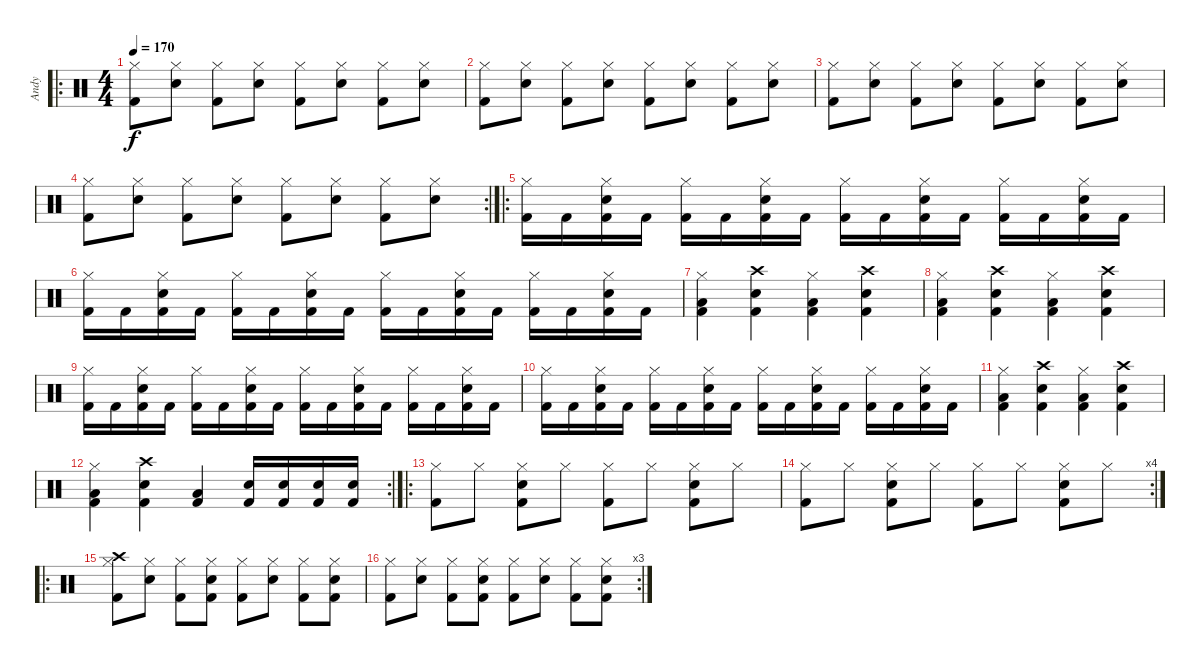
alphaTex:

\track ("Andy" "Andy") {instrument percussion}
\staff {score}
\articulation defaults
\ro
\ts (4 4)
\tempo 170
\clef neutral
\ks c
("Hi-Hat (closed)" "Kick (hit) 2").8{dy f} ("Hi-Hat (closed)" "Electric Snare (hit)").8 ("Hi-Hat (closed)" "Kick (hit) 2").8 ("Hi-Hat (closed)" "Electric Snare (hit)").8 ("Hi-Hat (closed)" "Kick (hit) 2").8 ("Hi-Hat (closed)" "Electric Snare (hit)").8 ("Hi-Hat (closed)" "Kick (hit) 2").8 ("Hi-Hat (closed)" "Electric Snare (hit)").8 |
("Hi-Hat (closed)" "Kick (hit) 2").8 ("Hi-Hat (closed)" "Electric Snare (hit)").8 ("Hi-Hat (closed)" "Kick (hit) 2").8 ("Hi-Hat (closed)" "Electric Snare (hit)").8 ("Hi-Hat (closed)" "Kick (hit) 2").8 ("Hi-Hat (closed)" "Electric Snare (hit)").8 ("Hi-Hat (closed)" "Kick (hit) 2").8 ("Hi-Hat (closed)" "Electric Snare (hit)").8 |
("Hi-Hat (closed)" "Kick (hit) 2").8 ("Hi-Hat (closed)" "Electric Snare (hit)").8 ("Hi-Hat (closed)" "Kick (hit) 2").8 ("Hi-Hat (closed)" "Electric Snare (hit)").8 ("Hi-Hat (closed)" "Kick (hit) 2").8 ("Hi-Hat (closed)" "Electric Snare (hit)").8 ("Hi-Hat (closed)" "Kick (hit) 2").8 ("Hi-Hat (closed)" "Electric Snare (hit)").8 |
\rc 2
("Hi-Hat (closed)" "Kick (hit) 2").8 ("Hi-Hat (closed)" "Electric Snare (hit)").8 ("Hi-Hat (closed)" "Kick (hit) 2").8 ("Hi-Hat (closed)" "Electric Snare (hit)").8 ("Hi-Hat (closed)" "Kick (hit) 2").8 ("Hi-Hat (closed)" "Electric Snare (hit)").8 ("Hi-Hat (closed)" "Kick (hit) 2").8 ("Hi-Hat (closed)" "Electric Snare (hit)").8 |
\ro
("Kick (hit) 2" "Hi-Hat (closed)").16 "Kick (hit) 2".16 ("Kick (hit) 2" "Hi-Hat (closed)" "Electric Snare (hit)").16 "Kick (hit) 2".16 ("Kick (hit) 2" "Hi-Hat (closed)").16 "Kick (hit) 2".16 ("Kick (hit) 2" "Hi-Hat (closed)" "Electric Snare (hit)").16 "Kick (hit) 2".16 ("Kick (hit) 2" "Hi-Hat (closed)").16 "Kick (hit) 2".16 ("Kick (hit) 2" "Hi-Hat (closed)" "Electric Snare (hit)").16 "Kick (hit) 2".16 ("Kick (hit) 2" "Hi-Hat (closed)").16 "Kick (hit) 2".16 ("Kick (hit) 2" "Hi-Hat (closed)" "Electric Snare (hit)").16 "Kick (hit) 2".16 |
("Kick (hit) 2" "Hi-Hat (closed)").16 "Kick (hit) 2".16 ("Kick (hit) 2" "Hi-Hat (closed)" "Electric Snare (hit)").16 "Kick (hit) 2".16 ("Kick (hit) 2" "Hi-Hat (closed)").16 "Kick (hit) 2".16 ("Kick (hit) 2" "Hi-Hat (closed)" "Electric Snare (hit)").16 "Kick (hit) 2".16 ("Kick (hit) 2" "Hi-Hat (closed)").16 "Kick (hit) 2".16 ("Kick (hit) 2" "Hi-Hat (closed)" "Electric Snare (hit)").16 "Kick (hit) 2".16 ("Kick (hit) 2" "Hi-Hat (closed)").16 "Kick (hit) 2".16 ("Kick (hit) 2" "Hi-Hat (closed)" "Electric Snare (hit)").16 "Kick (hit) 2".16 |
("Kick (hit) 2" "Low Tom (hit)" "Hi-Hat (closed)").4 ("Kick (hit) 2" "Electric Snare (hit)" "Crash high (hit)").4 ("Kick (hit) 2" "Low Tom (hit)" "Hi-Hat (closed)").4 ("Kick (hit) 2" "Electric Snare (hit)" "Crash high (hit)").4 |
("Kick (hit) 2" "Low Tom (hit)" "Hi-Hat (closed)").4 ("Kick (hit) 2" "Electric Snare (hit)" "Crash high (hit)").4 ("Kick (hit) 2" "Low Tom (hit)" "Hi-Hat (closed)").4 ("Kick (hit) 2" "Electric Snare (hit)" "Crash high (hit)").4 |
("Kick (hit) 2" "Hi-Hat (closed)").16 "Kick (hit) 2".16 ("Kick (hit) 2" "Hi-Hat (closed)" "Electric Snare (hit)").16 "Kick (hit) 2".16 ("Kick (hit) 2" "Hi-Hat (closed)").16 "Kick (hit) 2".16 ("Kick (hit) 2" "Hi-Hat (closed)" "Electric Snare (hit)").16 "Kick (hit) 2".16 ("Kick (hit) 2" "Hi-Hat (closed)").16 "Kick (hit) 2".16 ("Kick (hit) 2" "Hi-Hat (closed)" "Electric Snare (hit)").16 "Kick (hit) 2".16 ("Kick (hit) 2" "Hi-Hat (closed)").16 "Kick (hit) 2".16 ("Kick (hit) 2" "Hi-Hat (closed)" "Electric Snare (hit)").16 "Kick (hit) 2".16 |
("Kick (hit) 2" "Hi-Hat (closed)").16 "Kick (hit) 2".16 ("Kick (hit) 2" "Hi-Hat (closed)" "Electric Snare (hit)").16 "Kick (hit) 2".16 ("Kick (hit) 2" "Hi-Hat (closed)").16 "Kick (hit) 2".16 ("Kick (hit) 2" "Hi-Hat (closed)" "Electric Snare (hit)").16 "Kick (hit) 2".16 ("Kick (hit) 2" "Hi-Hat (closed)").16 "Kick (hit) 2".16 ("Kick (hit) 2" "Hi-Hat (closed)" "Electric Snare (hit)").16 "Kick (hit) 2".16 ("Kick (hit) 2" "Hi-Hat (closed)").16 "Kick (hit) 2".16 ("Kick (hit) 2" "Hi-Hat (closed)" "Electric Snare (hit)").16 "Kick (hit) 2".16 |
("Kick (hit) 2" "Low Tom (hit)" "Hi-Hat (closed)").4 ("Kick (hit) 2" "Electric Snare (hit)" "Crash high (hit)").4 ("Kick (hit) 2" "Low Tom (hit)" "Hi-Hat (closed)").4 ("Kick (hit) 2" "Electric Snare (hit)" "Crash high (hit)").4 |
\rc 2
("Kick (hit) 2" "Low Tom (hit)" "Hi-Hat (closed)").4 ("Kick (hit) 2" "Electric Snare (hit)" "Crash high (hit)").4 ("Kick (hit) 2" "Low Tom (hit)").4 ("Kick (hit) 2" "Electric Snare (hit)").16 ("Kick (hit) 2" "Electric Snare (hit)").16 ("Kick (hit) 2" "Electric Snare (hit)").16 ("Kick (hit) 2" "Electric Snare (hit)").16 |
\ro
("Hi-Hat (closed)" "Kick (hit) 2").8 "Hi-Hat (closed)".8 ("Hi-Hat (closed)" "Electric Snare (hit)" "Kick (hit) 2").8 "Hi-Hat (closed)".8 ("Hi-Hat (closed)" "Kick (hit) 2").8 "Hi-Hat (closed)".8 ("Hi-Hat (closed)" "Electric Snare (hit)" "Kick (hit) 2").8 "Hi-Hat (closed)".8 |
\rc 4
("Hi-Hat (closed)" "Kick (hit) 2").8 "Hi-Hat (closed)".8 ("Hi-Hat (closed)" "Electric Snare (hit)" "Kick (hit) 2").8 "Hi-Hat (closed)".8 ("Hi-Hat (closed)" "Kick (hit) 2").8 "Hi-Hat (closed)".8 ("Hi-Hat (closed)" "Electric Snare (hit)" "Kick (hit) 2").8 "Hi-Hat (closed)".8 |
\ro
("Hi-Hat (closed)" "Kick (hit) 2" "Crash high (hit)").8 ("Hi-Hat (closed)" "Electric Snare (hit)").8 ("Hi-Hat (closed)" "Kick (hit) 2").8 ("Hi-Hat (closed)" "Electric Snare (hit)" "Kick (hit) 2").8 ("Hi-Hat (closed)" "Kick (hit) 2").8 ("Hi-Hat (closed)" "Electric Snare (hit)").8 ("Hi-Hat (closed)" "Kick (hit) 2").8 ("Hi-Hat (closed)" "Electric Snare (hit)" "Kick (hit) 2").8 |
\rc 3
("Hi-Hat (closed)" "Kick (hit) 2").8 ("Hi-Hat (closed)" "Electric Snare (hit)").8 ("Hi-Hat (closed)" "Kick (hit) 2").8 ("Hi-Hat (closed)" "Electric Snare (hit)" "Kick (hit) 2").8 ("Hi-Hat (closed)" "Kick (hit) 2").8 ("Hi-Hat (closed)" "Electric Snare (hit)").8 ("Hi-Hat (closed)" "Kick (hit) 2").8 ("Hi-Hat (closed)" "Electric Snare (hit)" "Kick (hit) 2").8
